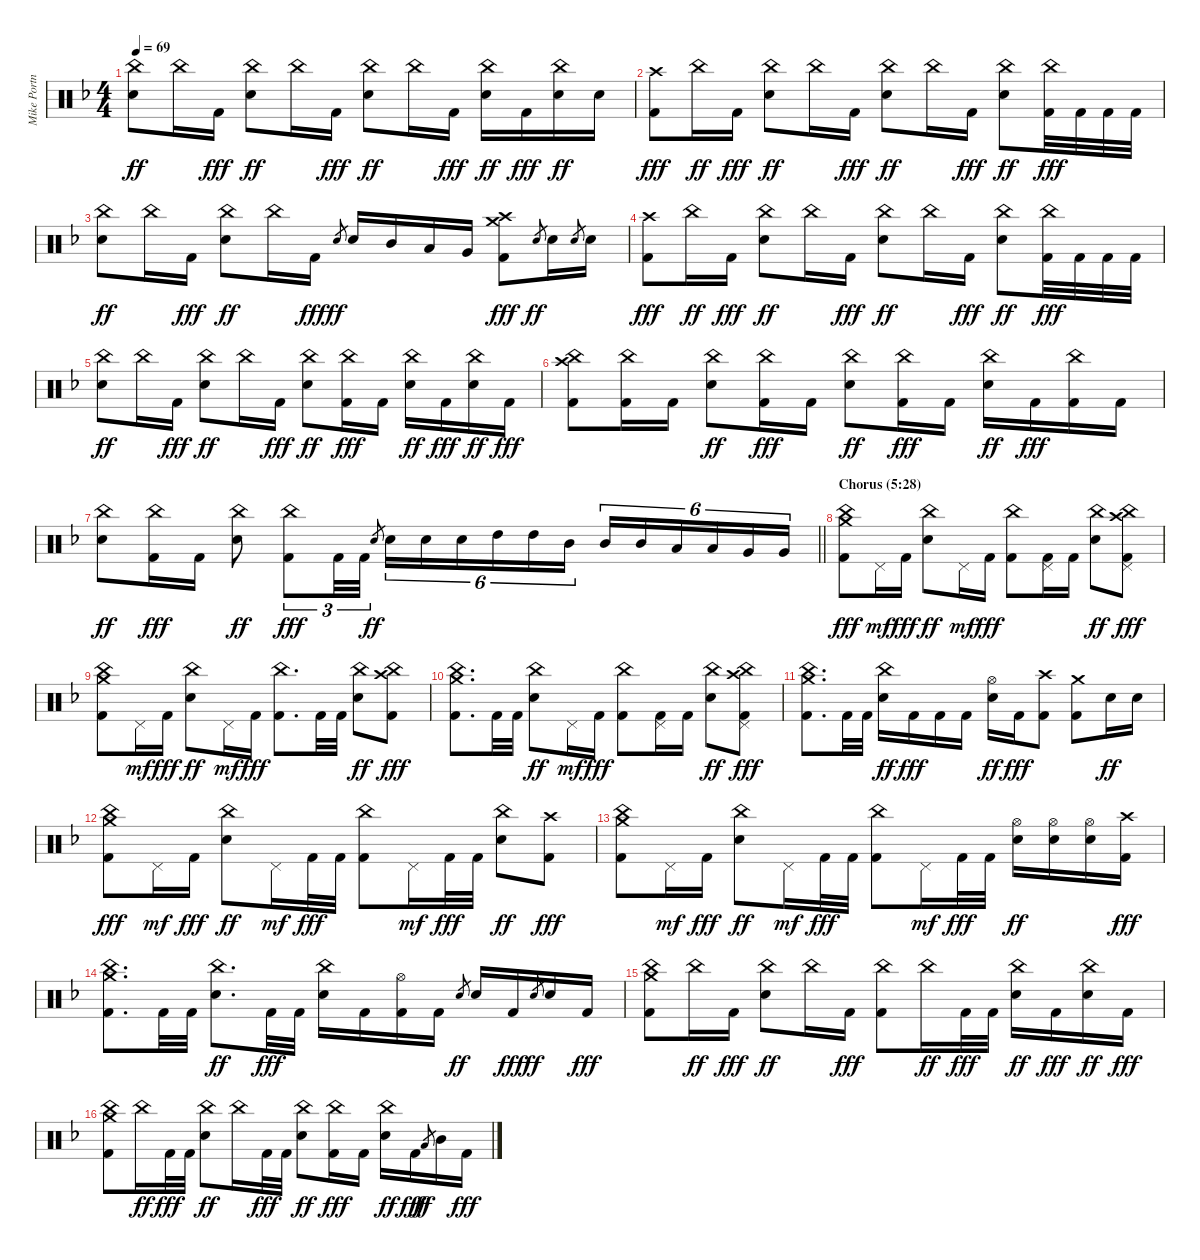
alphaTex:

\track ("Mike Portnoy Drums" "Mike Portn") {instrument percussion}
\staff {score}
\articulation defaults
\ts (4 4)
\tempo 69
\clef neutral
\ks dminor
("China (hit)" "Electric Snare (hit)").8{dy ff} "China (hit)".16 "Kick (hit) 2".16{dy fff} ("China (hit)" "Electric Snare (hit)").8{dy ff} "China (hit)".16 "Kick (hit) 2".16{dy fff} ("China (hit)" "Electric Snare (hit)").8{dy ff} "China (hit)".16 "Kick (hit) 2".16{dy fff} ("China (hit)" "Electric Snare (hit)").16{dy ff} "Kick (hit) 2".16{dy fff} ("China (hit)" "Electric Snare (hit)").16{dy ff} "Electric Snare (hit)".16 |
("Crash high (hit)" "Kick (hit) 2").8{dy fff} "China (hit)".16{dy ff} "Kick (hit) 2".16{dy fff} ("China (hit)" "Electric Snare (hit)").8{dy ff} "China (hit)".16 "Kick (hit) 2".16{dy fff} ("China (hit)" "Electric Snare (hit)").8{dy ff} "China (hit)".16 "Kick (hit) 2".16{dy fff} ("China (hit)" "Electric Snare (hit)").8{dy ff} ("China (hit)" "Kick (hit) 2").32{dy fff} "Kick (hit) 2".32 "Kick (hit) 2".32 "Kick (hit) 2".32 |
("China (hit)" "Electric Snare (hit)").8{dy ff} "China (hit)".16 "Kick (hit) 2".16{dy fff} ("China (hit)" "Electric Snare (hit)").8{dy ff} "China (hit)".16 "Kick (hit) 2".16{dy fff} "Electric Snare (hit)".8{gr dy ff} "Electric Snare (hit)".16 "Mid Tom (hit)".16 "Low Tom (hit)".16 "Very Low Tom (hit)".16 ("Crash high (hit)" "Crash medium (hit)" "Kick (hit) 2").8{dy fff} "Electric Snare (hit)".8{gr dy ff} "Electric Snare (hit)".16 "Electric Snare (hit)".8{gr} "Electric Snare (hit)".16 |
("Crash high (hit)" "Kick (hit) 2").8{dy fff} "China (hit)".16{dy ff} "Kick (hit) 2".16{dy fff} ("China (hit)" "Electric Snare (hit)").8{dy ff} "China (hit)".16 "Kick (hit) 2".16{dy fff} ("China (hit)" "Electric Snare (hit)").8{dy ff} "China (hit)".16 "Kick (hit) 2".16{dy fff} ("China (hit)" "Electric Snare (hit)").8{dy ff} ("China (hit)" "Kick (hit) 2").32{dy fff} "Kick (hit) 2".32 "Kick (hit) 2".32 "Kick (hit) 2".32 |
("China (hit)" "Electric Snare (hit)").8{dy ff} "China (hit)".16 "Kick (hit) 2".16{dy fff} ("China (hit)" "Electric Snare (hit)").8{dy ff} "China (hit)".16 "Kick (hit) 2".16{dy fff} ("China (hit)" "Electric Snare (hit)").8{dy ff} ("China (hit)" "Kick (hit) 2").16{dy fff} "Kick (hit) 2".16 ("China (hit)" "Electric Snare (hit)").16{dy ff} "Kick (hit) 2".16{dy fff} ("China (hit)" "Electric Snare (hit)").16{dy ff} "Kick (hit) 2".16{dy fff} |
("Crash high (hit)" "China (hit)" "Kick (hit) 2").8 ("China (hit)" "Kick (hit) 2").16 "Kick (hit) 2".16 ("China (hit)" "Electric Snare (hit)").8{dy ff} ("China (hit)" "Kick (hit) 2").16{dy fff} "Kick (hit) 2".16 ("China (hit)" "Electric Snare (hit)").8{dy ff} ("China (hit)" "Kick (hit) 2").16{dy fff} "Kick (hit) 2".16 ("China (hit)" "Electric Snare (hit)").16{dy ff} "Kick (hit) 2".16{dy fff} ("China (hit)" "Kick (hit) 2").16 "Kick (hit) 2".16 |
\barLineRight lightlight
("China (hit)" "Electric Snare (hit)").8{dy ff} ("China (hit)" "Kick (hit) 2").16{dy fff} "Kick (hit) 2".16 ("China (hit)" "Electric Snare (hit)").8{dy ff} ("China (hit)" "Kick (hit) 2").8{tu (3 2) dy fff} "Kick (hit) 2".32{tu (3 2)} "Kick (hit) 2".32{tu (3 2)} "Electric Snare (hit)".8{gr dy ff} "Electric Snare (hit)".16{tu (6 4)} "Electric Snare (hit)".16{tu (6 4)} "Electric Snare (hit)".16{tu (6 4)} "High Tom (hit)".16{tu (6 4)} "High Tom (hit)".16{tu (6 4)} "Mid Tom (hit)".16{tu (6 4)} "Mid Tom (hit)".16{tu (6 4)} "Mid Tom (hit)".16{tu (6 4)} "Low Tom (hit)".16{tu (6 4)} "Low Tom (hit)".16{tu (6 4)} "Very Low Tom (hit)".16{tu (6 4)} "Very Low Tom (hit)".16{tu (6 4)} |
\section ("" "Chorus (5:28)")
("China (hit)" "Crash medium (hit)" "Kick (hit) 2").8{dy fff} "Pedal Hi-Hat (hit)".16{dy mf} "Kick (hit) 2".16{dy fff} ("China (hit)" "Electric Snare (hit)").8{dy ff} "Pedal Hi-Hat (hit)".16{dy mf} "Kick (hit) 2".16{dy fff} ("China (hit)" "Kick (hit) 2").8 ("Pedal Hi-Hat (hit)" "Kick (hit) 2").16 "Kick (hit) 2".16 ("China (hit)" "Electric Snare (hit)").8{dy ff} ("Crash high (hit)" "China (hit)" "Pedal Hi-Hat (hit)" "Kick (hit) 2").8{dy fff} |
("China (hit)" "Crash medium (hit)" "Kick (hit) 2").8 "Pedal Hi-Hat (hit)".16{dy mf} "Kick (hit) 2".16{dy fff} ("China (hit)" "Electric Snare (hit)").8{dy ff} "Pedal Hi-Hat (hit)".16{dy mf} "Kick (hit) 2".16{dy fff} ("China (hit)" "Kick (hit) 2").8{d} "Kick (hit) 2".32 "Kick (hit) 2".32 ("China (hit)" "Electric Snare (hit)").8{dy ff} ("China (hit)" "Crash high (hit)" "Kick (hit) 2").8{dy fff} |
("China (hit)" "Crash medium (hit)" "Kick (hit) 2").8{d} "Kick (hit) 2".32 "Kick (hit) 2".32 ("China (hit)" "Electric Snare (hit)").8{dy ff} "Pedal Hi-Hat (hit)".16{dy mf} "Kick (hit) 2".16{dy fff} ("China (hit)" "Kick (hit) 2").8 ("Pedal Hi-Hat (hit)" "Kick (hit) 2").16 "Kick (hit) 2".16 ("China (hit)" "Electric Snare (hit)").8{dy ff} ("Crash high (hit)" "China (hit)" "Pedal Hi-Hat (hit)" "Kick (hit) 2").8{dy fff} |
("China (hit)" "Crash medium (hit)" "Kick (hit) 2").8{d} "Kick (hit) 2".32 "Kick (hit) 2".32 ("China (hit)" "Electric Snare (hit)").16{dy ff} "Kick (hit) 2".16{dy fff} "Kick (hit) 2".16 "Kick (hit) 2".16 ("Hi-Hat (open)" "Electric Snare (hit)").16{dy ff} "Kick (hit) 2".16{dy fff} ("Crash high (hit)" "Kick (hit) 2").8 ("Crash medium (hit)" "Kick (hit) 2").8 "Electric Snare (hit)".16{dy ff} "Electric Snare (hit)".16 |
("China (hit)" "Crash medium (hit)" "Kick (hit) 2").8{dy fff} "Pedal Hi-Hat (hit)".16{dy mf} "Kick (hit) 2".16{dy fff} ("China (hit)" "Electric Snare (hit)").8{dy ff} "Pedal Hi-Hat (hit)".16{dy mf} "Kick (hit) 2".32{dy fff} "Kick (hit) 2".32 ("China (hit)" "Kick (hit) 2").8 "Pedal Hi-Hat (hit)".16{dy mf} "Kick (hit) 2".32{dy fff} "Kick (hit) 2".32 ("China (hit)" "Electric Snare (hit)").8{dy ff} ("Crash high (hit)" "Kick (hit) 2").8{dy fff} |
("China (hit)" "Crash medium (hit)" "Kick (hit) 2").8 "Pedal Hi-Hat (hit)".16{dy mf} "Kick (hit) 2".16{dy fff} ("China (hit)" "Electric Snare (hit)").8{dy ff} "Pedal Hi-Hat (hit)".16{dy mf} "Kick (hit) 2".32{dy fff} "Kick (hit) 2".32 ("China (hit)" "Kick (hit) 2").8 "Pedal Hi-Hat (hit)".16{dy mf} "Kick (hit) 2".32{dy fff} "Kick (hit) 2".32 ("Hi-Hat (open)" "Electric Snare (hit)").16{dy ff} ("Hi-Hat (open)" "Electric Snare (hit)").16 ("Hi-Hat (open)" "Electric Snare (hit)").16 ("Crash high (hit)" "Kick (hit) 2").16{dy fff} |
("China (hit)" "Crash medium (hit)" "Kick (hit) 2").8{d} "Kick (hit) 2".32 "Kick (hit) 2".32 ("China (hit)" "Electric Snare (hit)").8{d dy ff} "Kick (hit) 2".32{dy fff} "Kick (hit) 2".32 ("China (hit)" "Electric Snare (hit)").16 "Kick (hit) 2".16 ("Hi-Hat (open)" "Kick (hit) 2").16 "Kick (hit) 2".16 "Electric Snare (hit)".8{gr dy ff} "Electric Snare (hit)".16 "Kick (hit) 2".16{dy fff} "Electric Snare (hit)".8{gr dy ff} "Electric Snare (hit)".16 "Kick (hit) 2".16{dy fff} |
("China (hit)" "Crash medium (hit)" "Kick (hit) 2").8 "China (hit)".16{dy ff} "Kick (hit) 2".16{dy fff} ("China (hit)" "Electric Snare (hit)").8{dy ff} "China (hit)".16 "Kick (hit) 2".16{dy fff} ("China (hit)" "Kick (hit) 2").8 "China (hit)".16{dy ff} "Kick (hit) 2".32{dy fff} "Kick (hit) 2".32 ("China (hit)" "Electric Snare (hit)").16{dy ff} "Kick (hit) 2".16{dy fff} ("China (hit)" "Electric Snare (hit)").16{dy ff} "Kick (hit) 2".16{dy fff} |
("China (hit)" "Crash medium (hit)" "Kick (hit) 2").8 "China (hit)".16{dy ff} "Kick (hit) 2".32{dy fff} "Kick (hit) 2".32 ("China (hit)" "Electric Snare (hit)").8{dy ff} "China (hit)".16 "Kick (hit) 2".32{dy fff} "Kick (hit) 2".32 ("China (hit)" "Electric Snare (hit)").8{dy ff} ("China (hit)" "Kick (hit) 2").16{dy fff} "Kick (hit) 2".16 ("China (hit)" "Electric Snare (hit)").16{dy ff} "Kick (hit) 2".16{dy fff} "Low Tom (hit)".8{gr dy ff} "Mid Tom (hit)".16 "Kick (hit) 2".16{dy fff}
